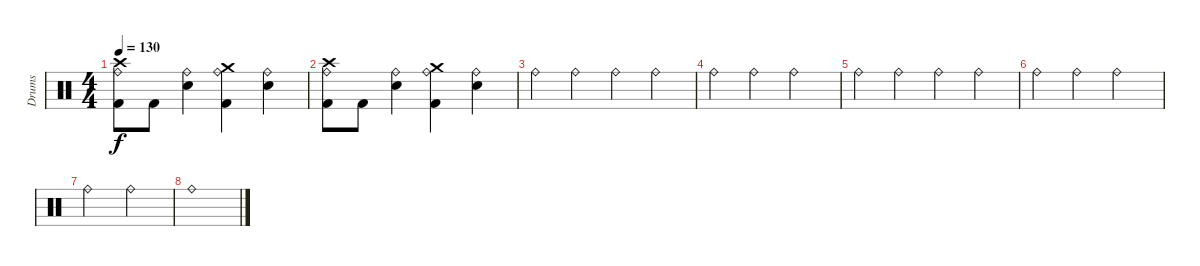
\track ("Drums" "Drums") {instrument percussion}
\staff {score}
\articulation defaults
\ts (4 4)
\tempo 130
\clef neutral
\ks c
("Crash high (hit)" "Ride (bell)" "Kick (hit) 2").8{dy f} "Kick (hit) 2".8 ("Ride (bell)" "Electric Snare (hit)").4 ("Crash medium (hit)" "Ride (bell)" "Kick (hit) 2").4 ("Ride (bell)" "Electric Snare (hit)").4 |
("Crash high (hit)" "Ride (bell)" "Kick (hit) 2").8 "Kick (hit) 2".8 ("Ride (bell)" "Electric Snare (hit)").4 ("Crash medium (hit)" "Ride (bell)" "Kick (hit) 2").4 ("Ride (bell)" "Electric Snare (hit)").4 |
"Ride (bell)".4 "Ride (bell)".4 "Ride (bell)".4 "Ride (bell)".4 |
"Ride (bell)".4 "Ride (bell)".4 "Ride (bell)".2 |
"Ride (bell)".4 "Ride (bell)".4 "Ride (bell)".4 "Ride (bell)".4 |
"Ride (bell)".4 "Ride (bell)".4 "Ride (bell)".2 |
"Ride (bell)".2 "Ride (bell)".2 |
"Ride (bell)".1
